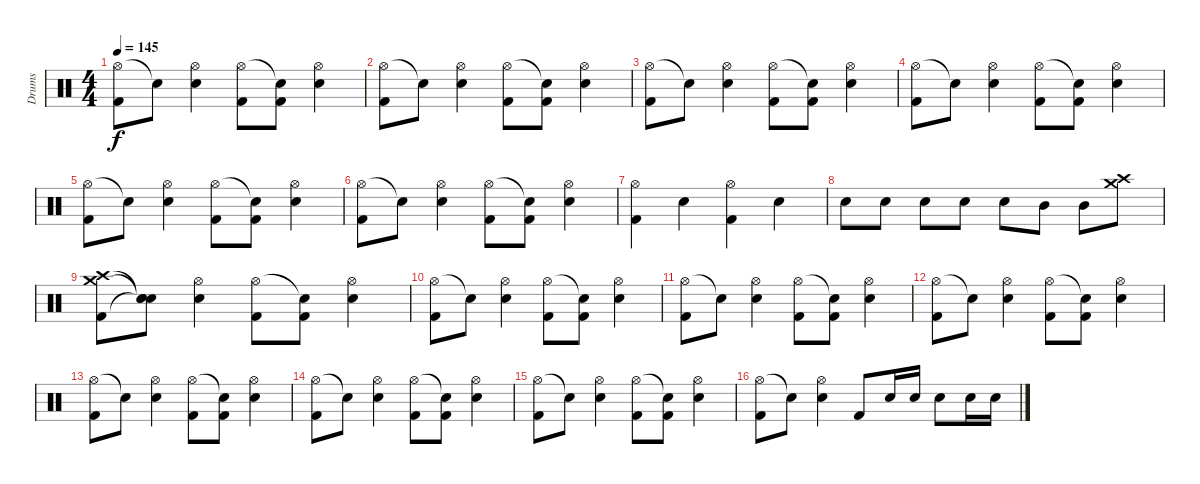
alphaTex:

\track ("Drums" "Drums") {instrument percussion}
\staff {score}
\articulation defaults
\ts (4 4)
\tempo 145
\clef neutral
\ks c
("Hi-Hat (open)" "Kick (hit) 2").8{dy f} "Snare (hit)"{t}.8 ("Hi-Hat (open)" "Electric Snare (hit)").4 ("Hi-Hat (open)" "Kick (hit) 2").8 ("Snare (hit)"{t} "Kick (hit) 2").8 ("Hi-Hat (open)" "Electric Snare (hit)").4 |
("Hi-Hat (open)" "Kick (hit) 2").8 "Snare (hit)"{t}.8 ("Hi-Hat (open)" "Electric Snare (hit)").4 ("Hi-Hat (open)" "Kick (hit) 2").8 ("Snare (hit)"{t} "Kick (hit) 2").8 ("Hi-Hat (open)" "Electric Snare (hit)").4 |
("Hi-Hat (open)" "Kick (hit) 2").8 "Snare (hit)"{t}.8 ("Hi-Hat (open)" "Electric Snare (hit)").4 ("Hi-Hat (open)" "Kick (hit) 2").8 ("Snare (hit)"{t} "Kick (hit) 2").8 ("Hi-Hat (open)" "Electric Snare (hit)").4 |
("Hi-Hat (open)" "Kick (hit) 2").8 "Snare (hit)"{t}.8 ("Hi-Hat (open)" "Electric Snare (hit)").4 ("Hi-Hat (open)" "Kick (hit) 2").8 ("Snare (hit)"{t} "Kick (hit) 2").8 ("Hi-Hat (open)" "Electric Snare (hit)").4 |
("Hi-Hat (open)" "Kick (hit) 2").8 "Snare (hit)"{t}.8 ("Hi-Hat (open)" "Electric Snare (hit)").4 ("Hi-Hat (open)" "Kick (hit) 2").8 ("Snare (hit)"{t} "Kick (hit) 2").8 ("Hi-Hat (open)" "Electric Snare (hit)").4 |
("Hi-Hat (open)" "Kick (hit) 2").8 "Snare (hit)"{t}.8 ("Hi-Hat (open)" "Electric Snare (hit)").4 ("Hi-Hat (open)" "Kick (hit) 2").8 ("Snare (hit)"{t} "Kick (hit) 2").8 ("Hi-Hat (open)" "Electric Snare (hit)").4 |
("Hi-Hat (open)" "Kick (hit) 2").4 "Electric Snare (hit)".4 ("Hi-Hat (open)" "Kick (hit) 2").4 "Electric Snare (hit)".4 |
"Electric Snare (hit)".8 "Electric Snare (hit)".8 "Electric Snare (hit)".8 "Electric Snare (hit)".8 "Electric Snare (hit)".8 "Mid Tom (hit)".8 "Mid Tom (hit)".8 ("Crash medium (hit)" "Crash high (hit)").8 |
("Crash medium (hit)" "Crash high (hit)" "Kick (hit) 2").8 ("Snare (hit)"{t} "Snare (hit)"{t} "Snare (hit)"{t}).8 ("Hi-Hat (open)" "Electric Snare (hit)").4 ("Hi-Hat (open)" "Kick (hit) 2").8 ("Snare (hit)"{t} "Kick (hit) 2").8 ("Hi-Hat (open)" "Electric Snare (hit)").4 |
("Hi-Hat (open)" "Kick (hit) 2").8 "Snare (hit)"{t}.8 ("Hi-Hat (open)" "Electric Snare (hit)").4 ("Hi-Hat (open)" "Kick (hit) 2").8 ("Snare (hit)"{t} "Kick (hit) 2").8 ("Hi-Hat (open)" "Electric Snare (hit)").4 |
("Hi-Hat (open)" "Kick (hit) 2").8 "Snare (hit)"{t}.8 ("Hi-Hat (open)" "Electric Snare (hit)").4 ("Hi-Hat (open)" "Kick (hit) 2").8 ("Snare (hit)"{t} "Kick (hit) 2").8 ("Hi-Hat (open)" "Electric Snare (hit)").4 |
("Hi-Hat (open)" "Kick (hit) 2").8 "Snare (hit)"{t}.8 ("Hi-Hat (open)" "Electric Snare (hit)").4 ("Hi-Hat (open)" "Kick (hit) 2").8 ("Snare (hit)"{t} "Kick (hit) 2").8 ("Hi-Hat (open)" "Electric Snare (hit)").4 |
("Hi-Hat (open)" "Kick (hit) 2").8 "Snare (hit)"{t}.8 ("Hi-Hat (open)" "Electric Snare (hit)").4 ("Hi-Hat (open)" "Kick (hit) 2").8 ("Snare (hit)"{t} "Kick (hit) 2").8 ("Hi-Hat (open)" "Electric Snare (hit)").4 |
("Hi-Hat (open)" "Kick (hit) 2").8 "Snare (hit)"{t}.8 ("Hi-Hat (open)" "Electric Snare (hit)").4 ("Hi-Hat (open)" "Kick (hit) 2").8 ("Snare (hit)"{t} "Kick (hit) 2").8 ("Hi-Hat (open)" "Electric Snare (hit)").4 |
("Hi-Hat (open)" "Kick (hit) 2").8 "Snare (hit)"{t}.8 ("Hi-Hat (open)" "Electric Snare (hit)").4 ("Hi-Hat (open)" "Kick (hit) 2").8 ("Snare (hit)"{t} "Kick (hit) 2").8 ("Hi-Hat (open)" "Electric Snare (hit)").4 |
("Hi-Hat (open)" "Kick (hit) 2").8 "Snare (hit)"{t}.8 ("Hi-Hat (open)" "Electric Snare (hit)").4 "Kick (hit) 2".8 "Electric Snare (hit)".16 "Electric Snare (hit)".16 "Electric Snare (hit)".8 "Electric Snare (hit)".16 "Electric Snare (hit)".16
